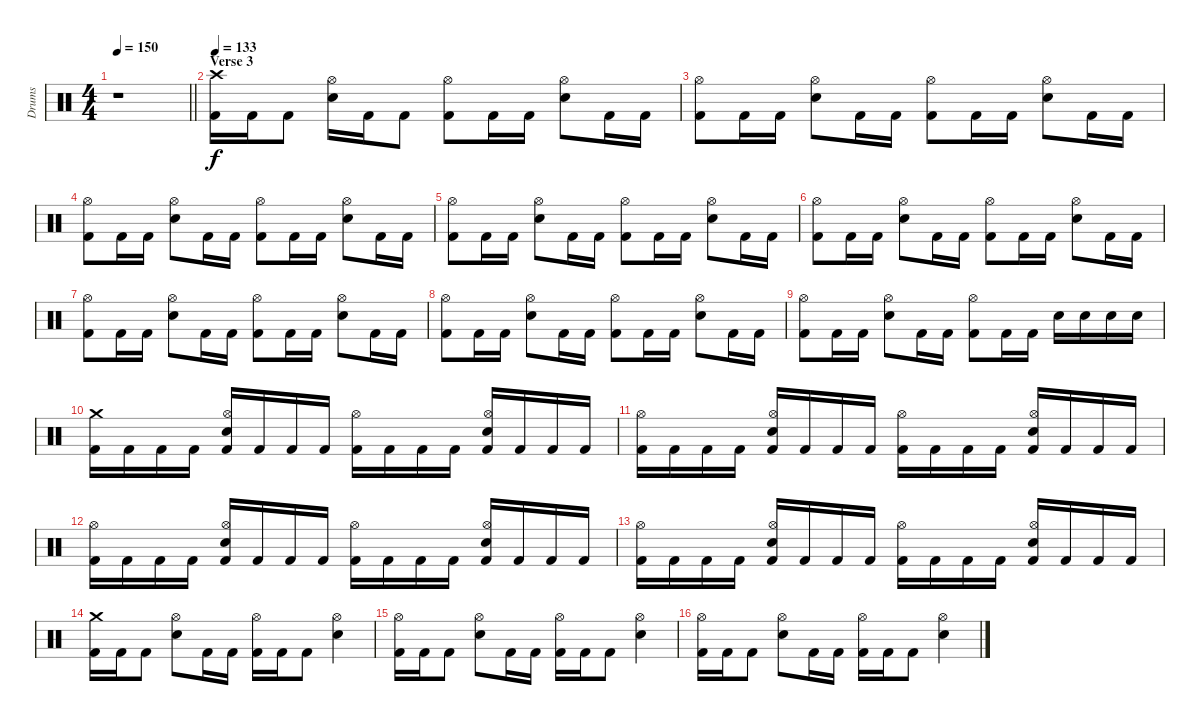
\track ("Drums" "Drums") {instrument percussion}
\staff {score}
\articulation defaults
\ts (4 4)
\tempo 150
\clef neutral
\barLineRight lightlight
\ks aminor
r.1{dy f} |
\section ("" "Verse 3")
\tempo 133
("Crash high (hit)" "Kick (hit) 2").16 "Kick (hit) 2".16 "Kick (hit) 2".8 ("Hi-Hat (open)" "Electric Snare (hit)").16 "Kick (hit) 2".16 "Kick (hit) 2".8 ("Hi-Hat (open)" "Kick (hit) 2").8 "Kick (hit) 2".16 "Kick (hit) 2".16 ("Hi-Hat (open)" "Electric Snare (hit)").8 "Kick (hit) 2".16 "Kick (hit) 2".16 |
("Hi-Hat (open)" "Kick (hit) 2").8 "Kick (hit) 2".16 "Kick (hit) 2".16 ("Hi-Hat (open)" "Electric Snare (hit)").8 "Kick (hit) 2".16 "Kick (hit) 2".16 ("Hi-Hat (open)" "Kick (hit) 2").8 "Kick (hit) 2".16 "Kick (hit) 2".16 ("Hi-Hat (open)" "Electric Snare (hit)").8 "Kick (hit) 2".16 "Kick (hit) 2".16 |
("Hi-Hat (open)" "Kick (hit) 2").8 "Kick (hit) 2".16 "Kick (hit) 2".16 ("Hi-Hat (open)" "Electric Snare (hit)").8 "Kick (hit) 2".16 "Kick (hit) 2".16 ("Hi-Hat (open)" "Kick (hit) 2").8 "Kick (hit) 2".16 "Kick (hit) 2".16 ("Hi-Hat (open)" "Electric Snare (hit)").8 "Kick (hit) 2".16 "Kick (hit) 2".16 |
("Hi-Hat (open)" "Kick (hit) 2").8 "Kick (hit) 2".16 "Kick (hit) 2".16 ("Hi-Hat (open)" "Electric Snare (hit)").8 "Kick (hit) 2".16 "Kick (hit) 2".16 ("Hi-Hat (open)" "Kick (hit) 2").8 "Kick (hit) 2".16 "Kick (hit) 2".16 ("Hi-Hat (open)" "Electric Snare (hit)").8 "Kick (hit) 2".16 "Kick (hit) 2".16 |
("Hi-Hat (open)" "Kick (hit) 2").8 "Kick (hit) 2".16 "Kick (hit) 2".16 ("Hi-Hat (open)" "Electric Snare (hit)").8 "Kick (hit) 2".16 "Kick (hit) 2".16 ("Hi-Hat (open)" "Kick (hit) 2").8 "Kick (hit) 2".16 "Kick (hit) 2".16 ("Hi-Hat (open)" "Electric Snare (hit)").8 "Kick (hit) 2".16 "Kick (hit) 2".16 |
("Hi-Hat (open)" "Kick (hit) 2").8 "Kick (hit) 2".16 "Kick (hit) 2".16 ("Hi-Hat (open)" "Electric Snare (hit)").8 "Kick (hit) 2".16 "Kick (hit) 2".16 ("Hi-Hat (open)" "Kick (hit) 2").8 "Kick (hit) 2".16 "Kick (hit) 2".16 ("Hi-Hat (open)" "Electric Snare (hit)").8 "Kick (hit) 2".16 "Kick (hit) 2".16 |
("Hi-Hat (open)" "Kick (hit) 2").8 "Kick (hit) 2".16 "Kick (hit) 2".16 ("Hi-Hat (open)" "Electric Snare (hit)").8 "Kick (hit) 2".16 "Kick (hit) 2".16 ("Hi-Hat (open)" "Kick (hit) 2").8 "Kick (hit) 2".16 "Kick (hit) 2".16 ("Hi-Hat (open)" "Electric Snare (hit)").8 "Kick (hit) 2".16 "Kick (hit) 2".16 |
("Hi-Hat (open)" "Kick (hit) 2").8 "Kick (hit) 2".16 "Kick (hit) 2".16 ("Hi-Hat (open)" "Electric Snare (hit)").8 "Kick (hit) 2".16 "Kick (hit) 2".16 ("Hi-Hat (open)" "Kick (hit) 2").8 "Kick (hit) 2".16 "Kick (hit) 2".16 "Electric Snare (hit)".16 "Electric Snare (hit)".16 "Electric Snare (hit)".16 "Electric Snare (hit)".16 |
("Crash medium (hit)" "Kick (hit) 2").16 "Kick (hit) 2".16 "Kick (hit) 2".16 "Kick (hit) 2".16 ("Hi-Hat (open)" "Electric Snare (hit)" "Kick (hit) 2").16 "Kick (hit) 2".16 "Kick (hit) 2".16 "Kick (hit) 2".16 ("Hi-Hat (open)" "Kick (hit) 2").16 "Kick (hit) 2".16 "Kick (hit) 2".16 "Kick (hit) 2".16 ("Hi-Hat (open)" "Electric Snare (hit)" "Kick (hit) 2").16 "Kick (hit) 2".16 "Kick (hit) 2".16 "Kick (hit) 2".16 |
("Hi-Hat (open)" "Kick (hit) 2").16 "Kick (hit) 2".16 "Kick (hit) 2".16 "Kick (hit) 2".16 ("Hi-Hat (open)" "Electric Snare (hit)" "Kick (hit) 2").16 "Kick (hit) 2".16 "Kick (hit) 2".16 "Kick (hit) 2".16 ("Hi-Hat (open)" "Kick (hit) 2").16 "Kick (hit) 2".16 "Kick (hit) 2".16 "Kick (hit) 2".16 ("Hi-Hat (open)" "Electric Snare (hit)" "Kick (hit) 2").16 "Kick (hit) 2".16 "Kick (hit) 2".16 "Kick (hit) 2".16 |
("Hi-Hat (open)" "Kick (hit) 2").16 "Kick (hit) 2".16 "Kick (hit) 2".16 "Kick (hit) 2".16 ("Hi-Hat (open)" "Electric Snare (hit)" "Kick (hit) 2").16 "Kick (hit) 2".16 "Kick (hit) 2".16 "Kick (hit) 2".16 ("Hi-Hat (open)" "Kick (hit) 2").16 "Kick (hit) 2".16 "Kick (hit) 2".16 "Kick (hit) 2".16 ("Hi-Hat (open)" "Electric Snare (hit)" "Kick (hit) 2").16 "Kick (hit) 2".16 "Kick (hit) 2".16 "Kick (hit) 2".16 |
("Hi-Hat (open)" "Kick (hit) 2").16 "Kick (hit) 2".16 "Kick (hit) 2".16 "Kick (hit) 2".16 ("Hi-Hat (open)" "Electric Snare (hit)" "Kick (hit) 2").16 "Kick (hit) 2".16 "Kick (hit) 2".16 "Kick (hit) 2".16 ("Hi-Hat (open)" "Kick (hit) 2").16 "Kick (hit) 2".16 "Kick (hit) 2".16 "Kick (hit) 2".16 ("Hi-Hat (open)" "Electric Snare (hit)" "Kick (hit) 2").16 "Kick (hit) 2".16 "Kick (hit) 2".16 "Kick (hit) 2".16 |
("Crash medium (hit)" "Kick (hit) 2").16 "Kick (hit) 2".16 "Kick (hit) 2".8 ("Hi-Hat (open)" "Electric Snare (hit)").8 "Kick (hit) 2".16 "Kick (hit) 2".16 ("Hi-Hat (open)" "Kick (hit) 2").16 "Kick (hit) 2".16 "Kick (hit) 2".8 ("Hi-Hat (open)" "Electric Snare (hit)").4 |
("Hi-Hat (open)" "Kick (hit) 2").16 "Kick (hit) 2".16 "Kick (hit) 2".8 ("Hi-Hat (open)" "Electric Snare (hit)").8 "Kick (hit) 2".16 "Kick (hit) 2".16 ("Hi-Hat (open)" "Kick (hit) 2").16 "Kick (hit) 2".16 "Kick (hit) 2".8 ("Hi-Hat (open)" "Electric Snare (hit)").4 |
("Hi-Hat (open)" "Kick (hit) 2").16 "Kick (hit) 2".16 "Kick (hit) 2".8 ("Hi-Hat (open)" "Electric Snare (hit)").8 "Kick (hit) 2".16 "Kick (hit) 2".16 ("Hi-Hat (open)" "Kick (hit) 2").16 "Kick (hit) 2".16 "Kick (hit) 2".8 ("Hi-Hat (open)" "Electric Snare (hit)").4
